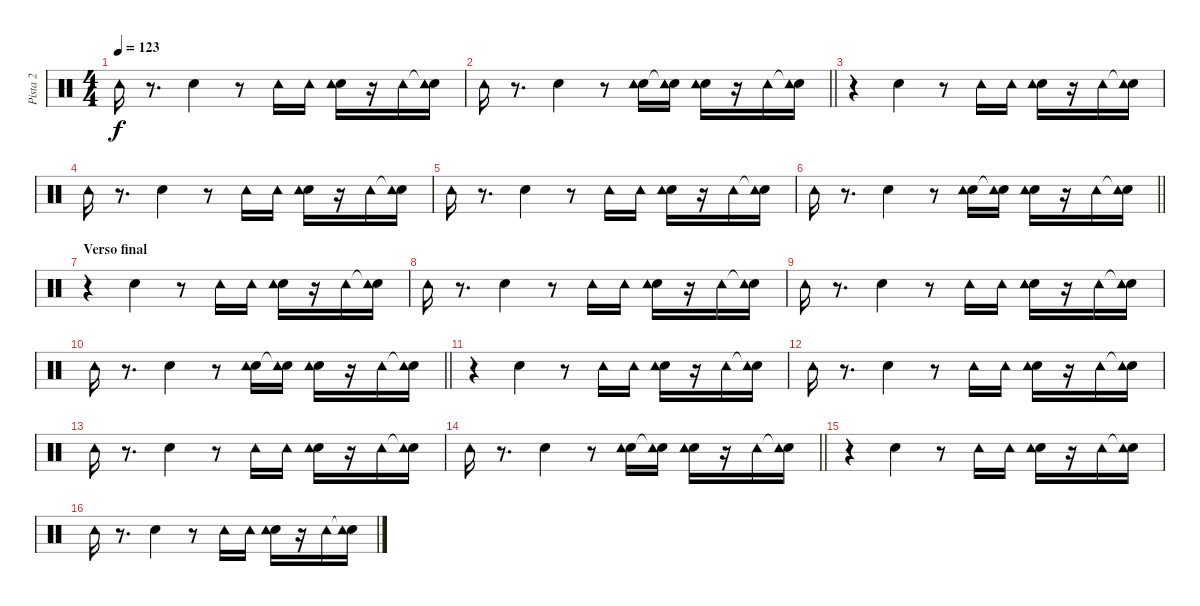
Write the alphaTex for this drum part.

\track ("Pista 2" "Pista 2") {instrument percussion}
\staff {score}
\articulation defaults
\ts (4 4)
\tempo 123
\clef neutral
\ks c "Tambourine (hit)".16{dy f}
r.8{d} "Hand Clap (hit)".4 r.8 "Tambourine (hit)".16 "Tambourine (hit)".16 ("Hand Clap (hit)" "Tambourine (hit)").16 r.16 "Tambourine (hit)".16 ("Snare (hit)"{t} "Tambourine (hit)").16 |
\barLineRight lightlight "Tambourine (hit)".16
r.8{d} "Hand Clap (hit)".4 r.8 ("Hand Clap (hit)" "Tambourine (hit)").16 ("Snare (hit)"{t} "Tambourine (hit)").16 ("Hand Clap (hit)" "Tambourine (hit)").16 r.16 "Tambourine (hit)".16 ("Snare (hit)"{t} "Tambourine (hit)").16 |
r.4 "Hand Clap (hit)".4 r.8 "Tambourine (hit)".16 "Tambourine (hit)".16 ("Hand Clap (hit)" "Tambourine (hit)").16 r.16 "Tambourine (hit)".16 ("Snare (hit)"{t} "Tambourine (hit)").16 |
"Tambourine (hit)".16 r.8{d} "Hand Clap (hit)".4 r.8 "Tambourine (hit)".16 "Tambourine (hit)".16 ("Hand Clap (hit)" "Tambourine (hit)").16 r.16 "Tambourine (hit)".16 ("Snare (hit)"{t} "Tambourine (hit)").16 |
"Tambourine (hit)".16 r.8{d} "Hand Clap (hit)".4 r.8 "Tambourine (hit)".16 "Tambourine (hit)".16 ("Hand Clap (hit)" "Tambourine (hit)").16 r.16 "Tambourine (hit)".16 ("Snare (hit)"{t} "Tambourine (hit)").16 |
\barLineRight lightlight "Tambourine (hit)".16
r.8{d} "Hand Clap (hit)".4 r.8 ("Hand Clap (hit)" "Tambourine (hit)").16 ("Snare (hit)"{t} "Tambourine (hit)").16 ("Hand Clap (hit)" "Tambourine (hit)").16 r.16 "Tambourine (hit)".16 ("Snare (hit)"{t} "Tambourine (hit)").16 |
\section ("" "Verso final")
r.4 "Hand Clap (hit)".4 r.8 "Tambourine (hit)".16 "Tambourine (hit)".16 ("Hand Clap (hit)" "Tambourine (hit)").16 r.16 "Tambourine (hit)".16 ("Snare (hit)"{t} "Tambourine (hit)").16 |
"Tambourine (hit)".16 r.8{d} "Hand Clap (hit)".4 r.8 "Tambourine (hit)".16 "Tambourine (hit)".16 ("Hand Clap (hit)" "Tambourine (hit)").16 r.16 "Tambourine (hit)".16 ("Snare (hit)"{t} "Tambourine (hit)").16 |
"Tambourine (hit)".16 r.8{d} "Hand Clap (hit)".4 r.8 "Tambourine (hit)".16 "Tambourine (hit)".16 ("Hand Clap (hit)" "Tambourine (hit)").16 r.16 "Tambourine (hit)".16 ("Snare (hit)"{t} "Tambourine (hit)").16 |
\barLineRight lightlight "Tambourine (hit)".16
r.8{d} "Hand Clap (hit)".4 r.8 ("Hand Clap (hit)" "Tambourine (hit)").16 ("Snare (hit)"{t} "Tambourine (hit)").16 ("Hand Clap (hit)" "Tambourine (hit)").16 r.16 "Tambourine (hit)".16 ("Snare (hit)"{t} "Tambourine (hit)").16 |
r.4 "Hand Clap (hit)".4 r.8 "Tambourine (hit)".16 "Tambourine (hit)".16 ("Hand Clap (hit)" "Tambourine (hit)").16 r.16 "Tambourine (hit)".16 ("Snare (hit)"{t} "Tambourine (hit)").16 |
"Tambourine (hit)".16 r.8{d} "Hand Clap (hit)".4 r.8 "Tambourine (hit)".16 "Tambourine (hit)".16 ("Hand Clap (hit)" "Tambourine (hit)").16 r.16 "Tambourine (hit)".16 ("Snare (hit)"{t} "Tambourine (hit)").16 |
"Tambourine (hit)".16 r.8{d} "Hand Clap (hit)".4 r.8 "Tambourine (hit)".16 "Tambourine (hit)".16 ("Hand Clap (hit)" "Tambourine (hit)").16 r.16 "Tambourine (hit)".16 ("Snare (hit)"{t} "Tambourine (hit)").16 |
\barLineRight lightlight "Tambourine (hit)".16
r.8{d} "Hand Clap (hit)".4 r.8 ("Hand Clap (hit)" "Tambourine (hit)").16 ("Snare (hit)"{t} "Tambourine (hit)").16 ("Hand Clap (hit)" "Tambourine (hit)").16 r.16 "Tambourine (hit)".16 ("Snare (hit)"{t} "Tambourine (hit)").16 |
r.4 "Hand Clap (hit)".4 r.8 "Tambourine (hit)".16 "Tambourine (hit)".16 ("Hand Clap (hit)" "Tambourine (hit)").16 r.16 "Tambourine (hit)".16 ("Snare (hit)"{t} "Tambourine (hit)").16 |
"Tambourine (hit)".16 r.8{d} "Hand Clap (hit)".4 r.8 "Tambourine (hit)".16 "Tambourine (hit)".16 ("Hand Clap (hit)" "Tambourine (hit)").16 r.16 "Tambourine (hit)".16 ("Snare (hit)"{t} "Tambourine (hit)").16
